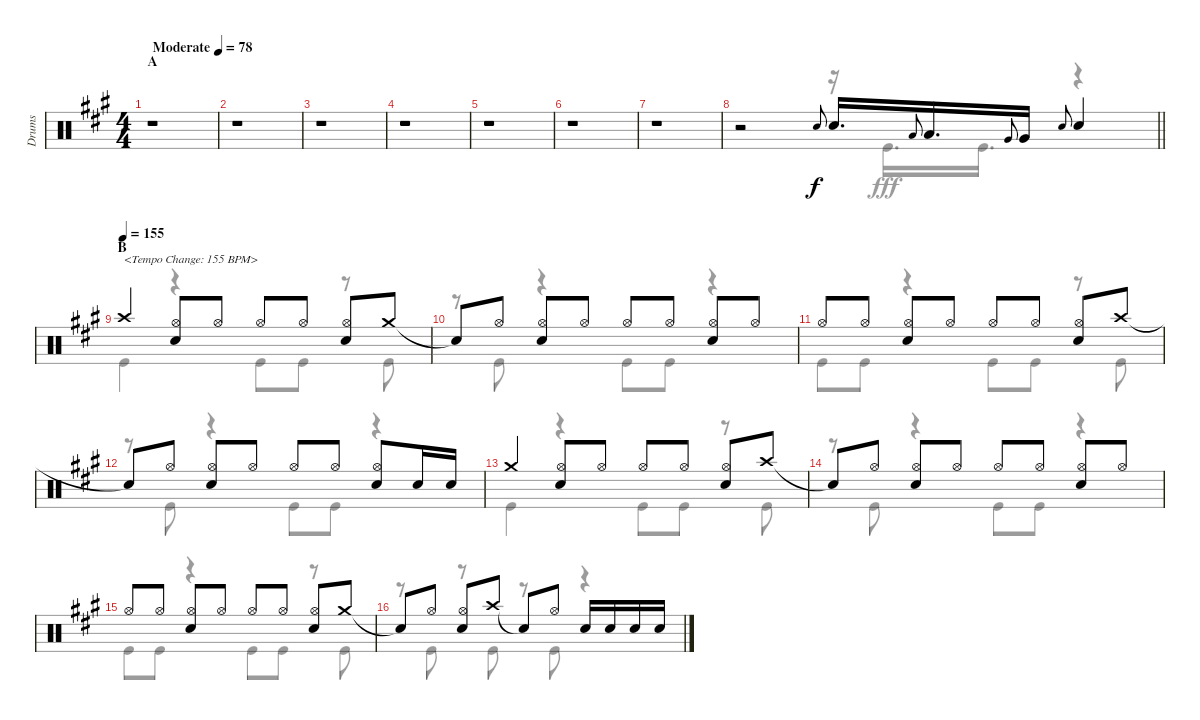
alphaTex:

\track ("Drums" "Drums") {instrument percussion}
\staff {score}
\articulation defaults
\voice
\ts (4 4)
\section ("" "A")
\tempo (78 "Moderate")
\clef neutral
\ks a
r.1{dy f} |
r.1 |
r.1 |
r.1 |
r.1 |
r.1 |
r.1 |
\barLineRight lightlight
r.2 "Snare (hit) 2".8{gr onbeat} "Snare (hit) 2".16{d} "Low Tom (hit)".8{gr onbeat} "Low Tom (hit)".16{d} "Very Low Tom (hit)".8{gr onbeat} "Very Low Tom (hit)".16 "Snare (hit) 2".8{gr onbeat} "Snare (hit) 2".4 |
\section ("" "B")
\tempo (155)
"Crash high (hit)".4{txt "<Tempo Change: 155 BPM>"} ("Hi-Hat (open)" "Snare (hit) 2").8 "Hi-Hat (open)".8 "Hi-Hat (open)".8 "Hi-Hat (open)".8 ("Hi-Hat (open)" "Snare (hit) 2").8 "Crash medium (hit)".8 |
"Snare (hit)"{t}.8 "Hi-Hat (open)".8 ("Hi-Hat (open)" "Snare (hit) 2").8 "Hi-Hat (open)".8 "Hi-Hat (open)".8 "Hi-Hat (open)".8 ("Hi-Hat (open)" "Snare (hit) 2").8 "Hi-Hat (open)".8 |
"Hi-Hat (open)".8 "Hi-Hat (open)".8 ("Hi-Hat (open)" "Snare (hit) 2").8 "Hi-Hat (open)".8 "Hi-Hat (open)".8 "Hi-Hat (open)".8 ("Hi-Hat (open)" "Snare (hit) 2").8 "Crash high (hit)".8 |
"Snare (hit)"{t}.8 "Hi-Hat (open)".8 ("Hi-Hat (open)" "Snare (hit) 2").8 "Hi-Hat (open)".8 "Hi-Hat (open)".8 "Hi-Hat (open)".8 ("Hi-Hat (open)" "Snare (hit) 2").8 "Snare (hit) 2".16 "Snare (hit) 2".16 |
"Crash medium (hit)".4 ("Hi-Hat (open)" "Snare (hit) 2").8 "Hi-Hat (open)".8 "Hi-Hat (open)".8 "Hi-Hat (open)".8 ("Hi-Hat (open)" "Snare (hit) 2").8 "Crash high (hit)".8 |
"Snare (hit)"{t}.8 "Hi-Hat (open)".8 ("Hi-Hat (open)" "Snare (hit) 2").8 "Hi-Hat (open)".8 "Hi-Hat (open)".8 "Hi-Hat (open)".8 ("Hi-Hat (open)" "Snare (hit) 2").8 "Hi-Hat (open)".8 |
"Hi-Hat (open)".8 "Hi-Hat (open)".8 ("Hi-Hat (open)" "Snare (hit) 2").8 "Hi-Hat (open)".8 "Hi-Hat (open)".8 "Hi-Hat (open)".8 ("Hi-Hat (open)" "Snare (hit) 2").8 "Crash medium (hit)".8 |
"Snare (hit)"{t}.8 "Hi-Hat (open)".8 ("Hi-Hat (open)" "Snare (hit) 2").8 "Crash high (hit)".8 "Snare (hit)"{t}.8 "Hi-Hat (open)".8 "Snare (hit) 2".16 "Snare (hit) 2".16 "Snare (hit) 2".16 "Snare (hit) 2".16
\voice
\clef neutral
\ottava regular
\simile none
\ks a
r.1{dy fff} |
r.1 |
r.1 |
r.1 |
r.1 |
r.1 |
r.1 |
\barLineRight lightlight
r.2 r.16 "Kick (hit)".16{d} "Kick (hit)".16{d} r.4 |
"Kick (hit)".4 r.4 "Kick (hit)".8 "Kick (hit)".8 r.8 "Kick (hit)".8 |
r.8 "Kick (hit)".8 r.4 "Kick (hit)".8 "Kick (hit)".8 r.4 |
"Kick (hit)".8 "Kick (hit)".8 r.4 "Kick (hit)".8 "Kick (hit)".8 r.8 "Kick (hit)".8 |
r.8 "Kick (hit)".8 r.4 "Kick (hit)".8 "Kick (hit)".8 r.4 |
"Kick (hit)".4 r.4 "Kick (hit)".8 "Kick (hit)".8 r.8 "Kick (hit)".8 |
r.8 "Kick (hit)".8 r.4 "Kick (hit)".8 "Kick (hit)".8 r.4 |
"Kick (hit)".8 "Kick (hit)".8 r.4 "Kick (hit)".8 "Kick (hit)".8 r.8 "Kick (hit)".8 |
r.8 "Kick (hit)".8 r.8 "Kick (hit)".8 r.8 "Kick (hit)".8 r.4
